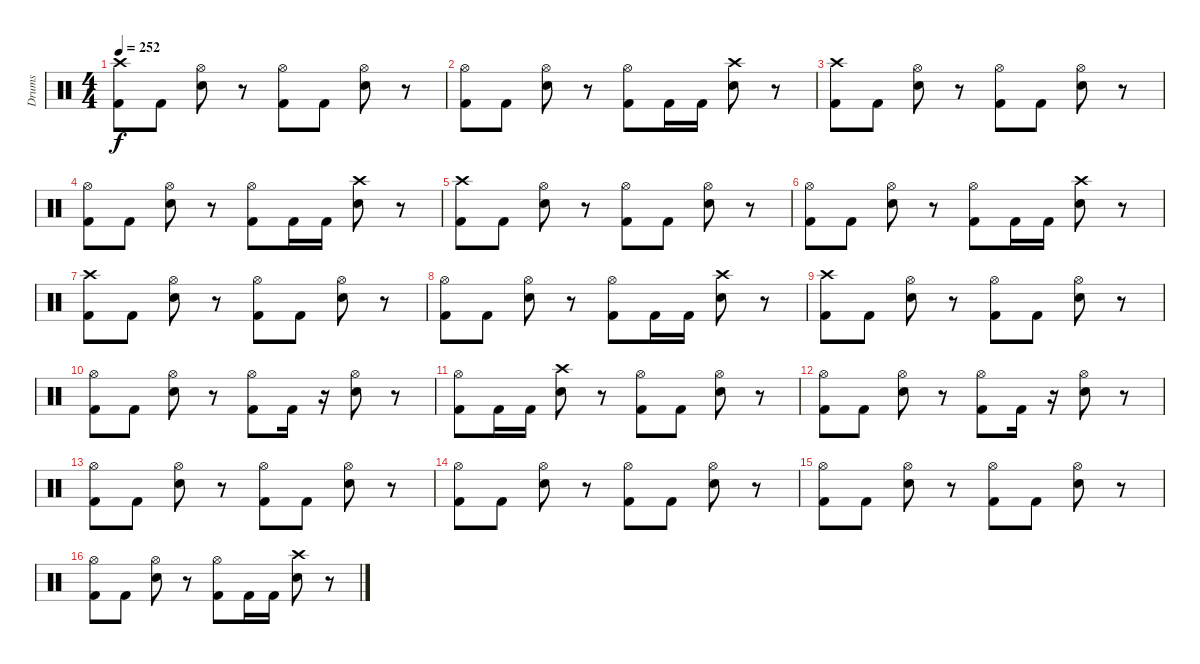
\track ("Drums" "Drums") {instrument percussion}
\staff {score}
\articulation defaults
\ts (4 4)
\tempo 252
\clef neutral
\ks c
("Crash high (hit)" "Kick (hit) 2").8{dy f} "Kick (hit) 2".8 ("Hi-Hat (open)" "Snare (hit) 2").8 r.8 ("Hi-Hat (open)" "Kick (hit) 2").8 "Kick (hit) 2".8 ("Hi-Hat (open)" "Snare (hit) 2").8 r.8 |
("Hi-Hat (open)" "Kick (hit) 2").8 "Kick (hit) 2".8 ("Hi-Hat (open)" "Snare (hit) 2").8 r.8 ("Hi-Hat (open)" "Kick (hit) 2").8 "Kick (hit) 2".16 "Kick (hit) 2".16 ("Crash high (hit)" "Snare (hit) 2").8 r.8 |
("Crash high (hit)" "Kick (hit) 2").8 "Kick (hit) 2".8 ("Hi-Hat (open)" "Snare (hit) 2").8 r.8 ("Hi-Hat (open)" "Kick (hit) 2").8 "Kick (hit) 2".8 ("Hi-Hat (open)" "Snare (hit) 2").8 r.8 |
("Hi-Hat (open)" "Kick (hit) 2").8 "Kick (hit) 2".8 ("Hi-Hat (open)" "Snare (hit) 2").8 r.8 ("Hi-Hat (open)" "Kick (hit) 2").8 "Kick (hit) 2".16 "Kick (hit) 2".16 ("Crash high (hit)" "Snare (hit) 2").8 r.8 |
("Crash high (hit)" "Kick (hit) 2").8 "Kick (hit) 2".8 ("Hi-Hat (open)" "Snare (hit) 2").8 r.8 ("Hi-Hat (open)" "Kick (hit) 2").8 "Kick (hit) 2".8 ("Hi-Hat (open)" "Snare (hit) 2").8 r.8 |
("Hi-Hat (open)" "Kick (hit) 2").8 "Kick (hit) 2".8 ("Hi-Hat (open)" "Snare (hit) 2").8 r.8 ("Hi-Hat (open)" "Kick (hit) 2").8 "Kick (hit) 2".16 "Kick (hit) 2".16 ("Crash high (hit)" "Snare (hit) 2").8 r.8 |
("Crash high (hit)" "Kick (hit) 2").8 "Kick (hit) 2".8 ("Hi-Hat (open)" "Snare (hit) 2").8 r.8 ("Hi-Hat (open)" "Kick (hit) 2").8 "Kick (hit) 2".8 ("Hi-Hat (open)" "Snare (hit) 2").8 r.8 |
("Hi-Hat (open)" "Kick (hit) 2").8 "Kick (hit) 2".8 ("Hi-Hat (open)" "Snare (hit) 2").8 r.8 ("Hi-Hat (open)" "Kick (hit) 2").8 "Kick (hit) 2".16 "Kick (hit) 2".16 ("Crash high (hit)" "Snare (hit) 2").8 r.8 |
("Crash high (hit)" "Kick (hit) 2").8 "Kick (hit) 2".8 ("Hi-Hat (open)" "Snare (hit) 2").8 r.8 ("Hi-Hat (open)" "Kick (hit) 2").8 "Kick (hit) 2".8 ("Hi-Hat (open)" "Snare (hit) 2").8 r.8 |
("Hi-Hat (open)" "Kick (hit) 2").8 "Kick (hit) 2".8 ("Hi-Hat (open)" "Snare (hit) 2").8 r.8 ("Hi-Hat (open)" "Kick (hit) 2").8 "Kick (hit) 2".16 r.16 ("Hi-Hat (open)" "Snare (hit) 2").8 r.8 |
("Hi-Hat (open)" "Kick (hit) 2").8 "Kick (hit) 2".16 "Kick (hit) 2".16 ("Crash high (hit)" "Snare (hit) 2").8 r.8 ("Hi-Hat (open)" "Kick (hit) 2").8 "Kick (hit) 2".8 ("Hi-Hat (open)" "Snare (hit) 2").8 r.8 |
("Hi-Hat (open)" "Kick (hit) 2").8 "Kick (hit) 2".8 ("Hi-Hat (open)" "Snare (hit) 2").8 r.8 ("Hi-Hat (open)" "Kick (hit) 2").8 "Kick (hit) 2".16 r.16 ("Hi-Hat (open)" "Snare (hit) 2").8 r.8 |
("Hi-Hat (open)" "Kick (hit) 2").8 "Kick (hit) 2".8 ("Hi-Hat (open)" "Snare (hit) 2").8 r.8 ("Hi-Hat (open)" "Kick (hit) 2").8 "Kick (hit) 2".8 ("Hi-Hat (open)" "Snare (hit) 2").8 r.8 |
("Hi-Hat (open)" "Kick (hit) 2").8 "Kick (hit) 2".8 ("Hi-Hat (open)" "Snare (hit) 2").8 r.8 ("Hi-Hat (open)" "Kick (hit) 2").8 "Kick (hit) 2".8 ("Hi-Hat (open)" "Snare (hit) 2").8 r.8 |
("Hi-Hat (open)" "Kick (hit) 2").8 "Kick (hit) 2".8 ("Hi-Hat (open)" "Snare (hit) 2").8 r.8 ("Hi-Hat (open)" "Kick (hit) 2").8 "Kick (hit) 2".8 ("Hi-Hat (open)" "Snare (hit) 2").8 r.8 |
("Hi-Hat (open)" "Kick (hit) 2").8 "Kick (hit) 2".8 ("Hi-Hat (open)" "Snare (hit) 2").8 r.8 ("Hi-Hat (open)" "Kick (hit) 2").8 "Kick (hit) 2".16 "Kick (hit) 2".16 ("Crash high (hit)" "Snare (hit) 2").8 r.8
